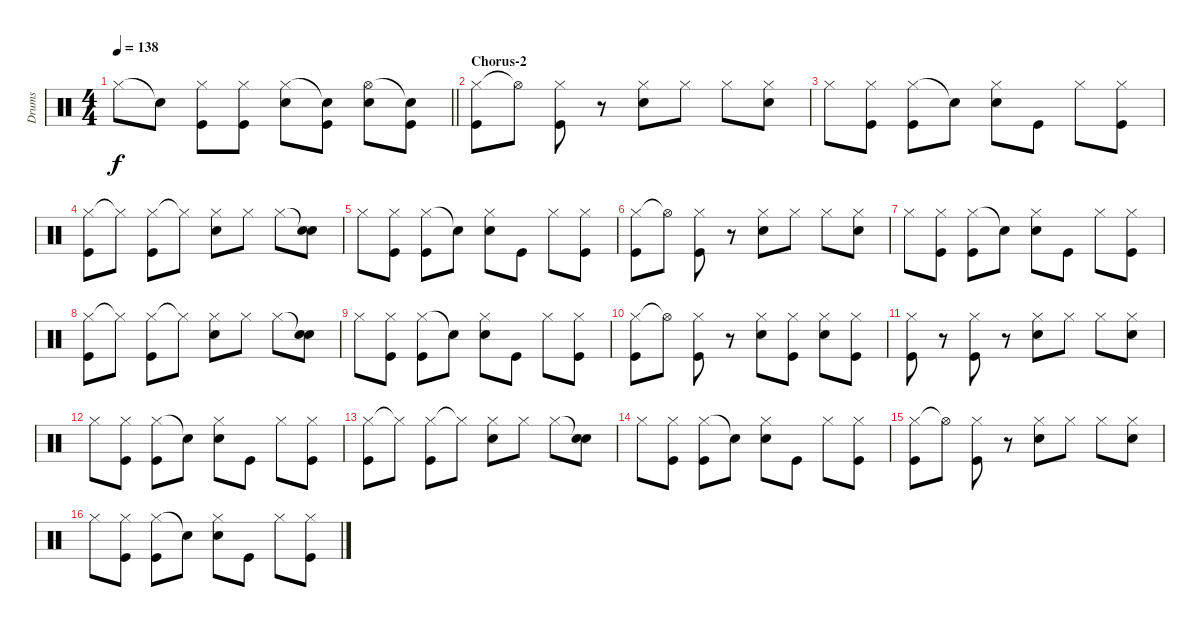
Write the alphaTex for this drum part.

\track ("Drums" "Drums") {instrument percussion}
\staff {score}
\articulation defaults
\ts (4 4)
\tempo 138
\clef neutral
\barLineRight lightlight
\ks c "Hi-Hat (closed)".8{dy f} "Snare (hit)"{t}.8
("Hi-Hat (closed)" "Kick (hit)").8 ("Hi-Hat (closed)" "Kick (hit)").8 ("Hi-Hat (closed)" "Electric Snare (hit)").8 ("Snare (hit)"{t} "Kick (hit)").8 ("Hi-Hat (open)" "Electric Snare (hit)").8 ("Snare (hit)"{t} "Kick (hit)").8 |
\section ("" "Chorus-2")
("Hi-Hat (closed)" "Kick (hit)").8 "Hi-Hat (open)"{t}.8 ("Hi-Hat (closed)" "Kick (hit)").8 r.8 ("Hi-Hat (closed)" "Electric Snare (hit)").8 "Hi-Hat (closed)".8 "Hi-Hat (closed)".8 ("Hi-Hat (closed)" "Electric Snare (hit)").8 |
"Hi-Hat (closed)".8 ("Hi-Hat (closed)" "Kick (hit)").8 ("Hi-Hat (closed)" "Kick (hit)").8 "Snare (hit)"{t}.8 ("Hi-Hat (closed)" "Electric Snare (hit)").8 "Kick (hit)".8 "Hi-Hat (closed)".8 ("Hi-Hat (closed)" "Kick (hit)").8 |
("Hi-Hat (closed)" "Kick (hit)").8 "Hi-Hat (closed)"{t}.8 ("Hi-Hat (closed)" "Kick (hit)").8 "Hi-Hat (closed)"{t}.8 ("Hi-Hat (closed)" "Electric Snare (hit)").8 "Hi-Hat (closed)".8 "Hi-Hat (closed)".8 ("Snare (hit)"{t} "Electric Snare (hit)").8 |
"Hi-Hat (closed)".8 ("Hi-Hat (closed)" "Kick (hit)").8 ("Hi-Hat (closed)" "Kick (hit)").8 "Snare (hit)"{t}.8 ("Hi-Hat (closed)" "Electric Snare (hit)").8 "Kick (hit)".8 "Hi-Hat (closed)".8 ("Hi-Hat (closed)" "Kick (hit)").8 |
("Hi-Hat (closed)" "Kick (hit)").8 "Hi-Hat (open)"{t}.8 ("Hi-Hat (closed)" "Kick (hit)").8 r.8 ("Hi-Hat (closed)" "Electric Snare (hit)").8 "Hi-Hat (closed)".8 "Hi-Hat (closed)".8 ("Hi-Hat (closed)" "Electric Snare (hit)").8 |
"Hi-Hat (closed)".8 ("Hi-Hat (closed)" "Kick (hit)").8 ("Hi-Hat (closed)" "Kick (hit)").8 "Snare (hit)"{t}.8 ("Hi-Hat (closed)" "Electric Snare (hit)").8 "Kick (hit)".8 "Hi-Hat (closed)".8 ("Hi-Hat (closed)" "Kick (hit)").8 |
("Hi-Hat (closed)" "Kick (hit)").8 "Hi-Hat (closed)"{t}.8 ("Hi-Hat (closed)" "Kick (hit)").8 "Hi-Hat (closed)"{t}.8 ("Hi-Hat (closed)" "Electric Snare (hit)").8 "Hi-Hat (closed)".8 "Hi-Hat (closed)".8 ("Snare (hit)"{t} "Electric Snare (hit)").8 |
"Hi-Hat (closed)".8 ("Hi-Hat (closed)" "Kick (hit)").8 ("Hi-Hat (closed)" "Kick (hit)").8 "Snare (hit)"{t}.8 ("Hi-Hat (closed)" "Electric Snare (hit)").8 "Kick (hit)".8 "Hi-Hat (closed)".8 ("Hi-Hat (closed)" "Kick (hit)").8 |
("Hi-Hat (closed)" "Kick (hit)").8 "Hi-Hat (open)"{t}.8 ("Hi-Hat (closed)" "Kick (hit)").8 r.8 ("Hi-Hat (closed)" "Electric Snare (hit)").8 ("Hi-Hat (closed)" "Kick (hit)").8 ("Hi-Hat (closed)" "Electric Snare (hit)").8 ("Hi-Hat (closed)" "Kick (hit)").8 |
("Hi-Hat (closed)" "Kick (hit)").8 r.8 ("Hi-Hat (closed)" "Kick (hit)").8 r.8 ("Hi-Hat (closed)" "Electric Snare (hit)").8 "Hi-Hat (closed)".8 "Hi-Hat (closed)".8 ("Hi-Hat (closed)" "Electric Snare (hit)").8 |
"Hi-Hat (closed)".8 ("Hi-Hat (closed)" "Kick (hit)").8 ("Hi-Hat (closed)" "Kick (hit)").8 "Snare (hit)"{t}.8 ("Hi-Hat (closed)" "Electric Snare (hit)").8 "Kick (hit)".8 "Hi-Hat (closed)".8 ("Hi-Hat (closed)" "Kick (hit)").8 |
("Hi-Hat (closed)" "Kick (hit)").8 "Hi-Hat (closed)"{t}.8 ("Hi-Hat (closed)" "Kick (hit)").8 "Hi-Hat (closed)"{t}.8 ("Hi-Hat (closed)" "Electric Snare (hit)").8 "Hi-Hat (closed)".8 "Hi-Hat (closed)".8 ("Snare (hit)"{t} "Electric Snare (hit)").8 |
"Hi-Hat (closed)".8 ("Hi-Hat (closed)" "Kick (hit)").8 ("Hi-Hat (closed)" "Kick (hit)").8 "Snare (hit)"{t}.8 ("Hi-Hat (closed)" "Electric Snare (hit)").8 "Kick (hit)".8 "Hi-Hat (closed)".8 ("Hi-Hat (closed)" "Kick (hit)").8 |
("Hi-Hat (closed)" "Kick (hit)").8 "Hi-Hat (open)"{t}.8 ("Hi-Hat (closed)" "Kick (hit)").8 r.8 ("Hi-Hat (closed)" "Electric Snare (hit)").8 "Hi-Hat (closed)".8 "Hi-Hat (closed)".8 ("Hi-Hat (closed)" "Electric Snare (hit)").8 |
"Hi-Hat (closed)".8 ("Hi-Hat (closed)" "Kick (hit)").8 ("Hi-Hat (closed)" "Kick (hit)").8 "Snare (hit)"{t}.8 ("Hi-Hat (closed)" "Electric Snare (hit)").8 "Kick (hit)".8 "Hi-Hat (closed)".8 ("Hi-Hat (closed)" "Kick (hit)").8
